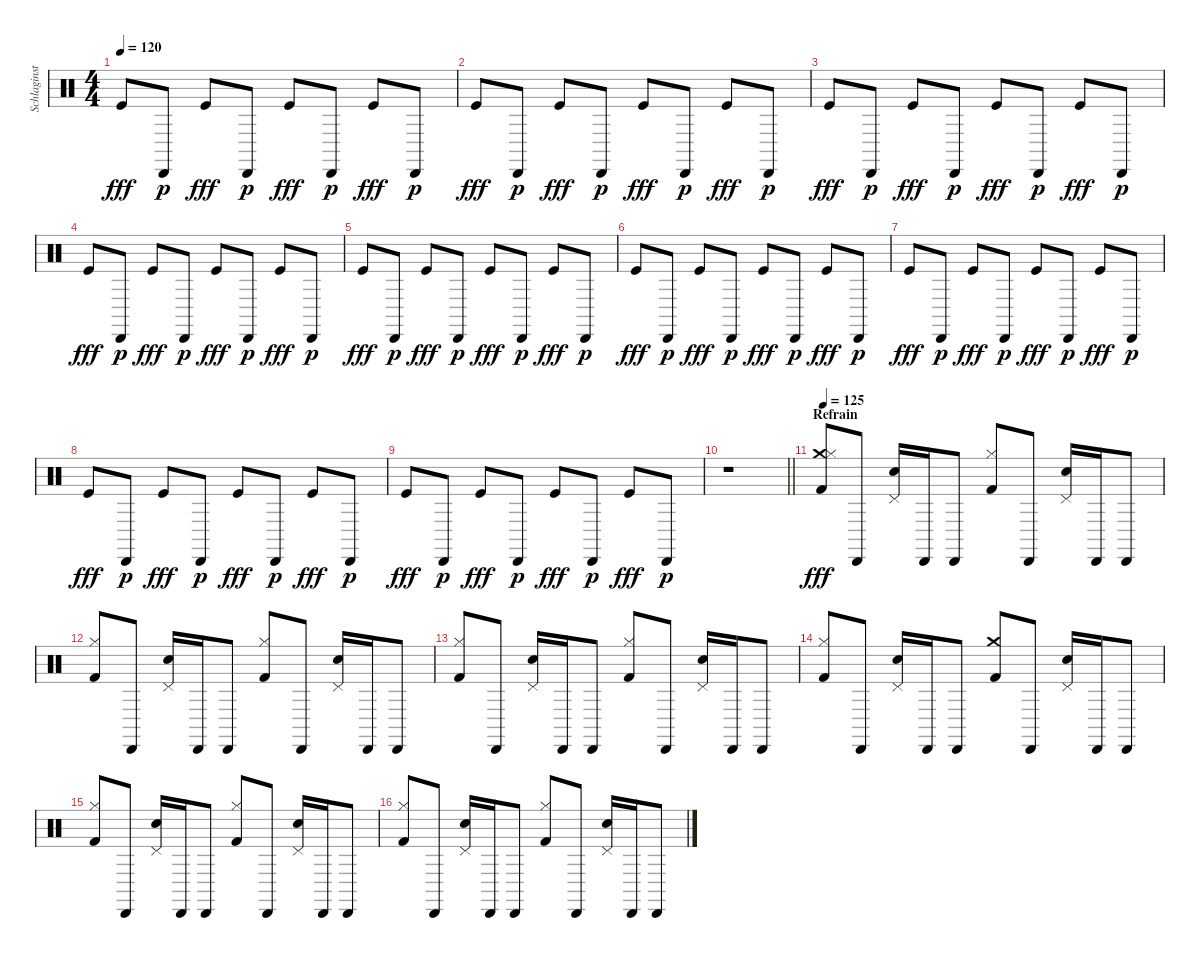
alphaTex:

\track ("Schlaginstrumente - Auswahl" "Schlaginst") {instrument percussion}
\staff {score}
\articulation defaults
\ts (4 4)
\tempo 120
\clef neutral
\ks c "Kick (hit)".8{dy fff} "Cabasa (hit)".8{dy p} "Kick (hit)".8{dy fff} "Cabasa (hit)".8{dy p} "Kick (hit)".8{dy fff} "Cabasa (hit)".8{dy p} "Kick (hit)".8{dy fff} "Cabasa (hit)".8{dy p}
|
"Kick (hit)".8{dy fff} "Cabasa (hit)".8{dy p} "Kick (hit)".8{dy fff} "Cabasa (hit)".8{dy p} "Kick (hit)".8{dy fff} "Cabasa (hit)".8{dy p} "Kick (hit)".8{dy fff} "Cabasa (hit)".8{dy p} |
"Kick (hit)".8{dy fff} "Cabasa (hit)".8{dy p} "Kick (hit)".8{dy fff} "Cabasa (hit)".8{dy p} "Kick (hit)".8{dy fff} "Cabasa (hit)".8{dy p} "Kick (hit)".8{dy fff} "Cabasa (hit)".8{dy p} |
"Kick (hit)".8{dy fff} "Cabasa (hit)".8{dy p} "Kick (hit)".8{dy fff} "Cabasa (hit)".8{dy p} "Kick (hit)".8{dy fff} "Cabasa (hit)".8{dy p} "Kick (hit)".8{dy fff} "Cabasa (hit)".8{dy p} |
"Kick (hit)".8{dy fff} "Cabasa (hit)".8{dy p} "Kick (hit)".8{dy fff} "Cabasa (hit)".8{dy p} "Kick (hit)".8{dy fff} "Cabasa (hit)".8{dy p} "Kick (hit)".8{dy fff} "Cabasa (hit)".8{dy p} |
"Kick (hit)".8{dy fff} "Cabasa (hit)".8{dy p} "Kick (hit)".8{dy fff} "Cabasa (hit)".8{dy p} "Kick (hit)".8{dy fff} "Cabasa (hit)".8{dy p} "Kick (hit)".8{dy fff} "Cabasa (hit)".8{dy p} |
"Kick (hit)".8{dy fff} "Cabasa (hit)".8{dy p} "Kick (hit)".8{dy fff} "Cabasa (hit)".8{dy p} "Kick (hit)".8{dy fff} "Cabasa (hit)".8{dy p} "Kick (hit)".8{dy fff} "Cabasa (hit)".8{dy p} |
"Kick (hit)".8{dy fff} "Cabasa (hit)".8{dy p} "Kick (hit)".8{dy fff} "Cabasa (hit)".8{dy p} "Kick (hit)".8{dy fff} "Cabasa (hit)".8{dy p} "Kick (hit)".8{dy fff} "Cabasa (hit)".8{dy p} |
"Kick (hit)".8{dy fff} "Cabasa (hit)".8{dy p} "Kick (hit)".8{dy fff} "Cabasa (hit)".8{dy p} "Kick (hit)".8{dy fff} "Cabasa (hit)".8{dy p} "Kick (hit)".8{dy fff} "Cabasa (hit)".8{dy p} |
\barLineRight lightlight
r.1 |
\section ("" "Refrain")
\tempo 125
("Crash medium (hit)" "Hi-Hat (closed)" "Kick (hit) 2").8{dy fff} "Cabasa (hit)".8 ("Pedal Hi-Hat (hit)" "Hand Clap (hit)").16 "Cabasa (hit)".16 "Cabasa (hit)".8 ("Hi-Hat (closed)" "Kick (hit) 2").8 "Cabasa (hit)".8 ("Pedal Hi-Hat (hit)" "Hand Clap (hit)").16 "Cabasa (hit)".16 "Cabasa (hit)".8 |
("Hi-Hat (closed)" "Kick (hit) 2").8 "Cabasa (hit)".8 ("Pedal Hi-Hat (hit)" "Hand Clap (hit)").16 "Cabasa (hit)".16 "Cabasa (hit)".8 ("Hi-Hat (closed)" "Kick (hit) 2").8 "Cabasa (hit)".8 ("Pedal Hi-Hat (hit)" "Hand Clap (hit)").16 "Cabasa (hit)".16 "Cabasa (hit)".8 |
("Hi-Hat (closed)" "Kick (hit) 2").8 "Cabasa (hit)".8 ("Pedal Hi-Hat (hit)" "Hand Clap (hit)").16 "Cabasa (hit)".16 "Cabasa (hit)".8 ("Hi-Hat (closed)" "Kick (hit) 2").8 "Cabasa (hit)".8 ("Pedal Hi-Hat (hit)" "Hand Clap (hit)").16 "Cabasa (hit)".16 "Cabasa (hit)".8 |
("Hi-Hat (closed)" "Kick (hit) 2").8 "Cabasa (hit)".8 ("Pedal Hi-Hat (hit)" "Hand Clap (hit)").16 "Cabasa (hit)".16 "Cabasa (hit)".8 ("Crash medium (hit)" "Kick (hit) 2").8 "Cabasa (hit)".8 ("Pedal Hi-Hat (hit)" "Hand Clap (hit)").16 "Cabasa (hit)".16 "Cabasa (hit)".8 |
("Hi-Hat (closed)" "Kick (hit) 2").8 "Cabasa (hit)".8 ("Pedal Hi-Hat (hit)" "Hand Clap (hit)").16 "Cabasa (hit)".16 "Cabasa (hit)".8 ("Hi-Hat (closed)" "Kick (hit) 2").8 "Cabasa (hit)".8 ("Pedal Hi-Hat (hit)" "Hand Clap (hit)").16 "Cabasa (hit)".16 "Cabasa (hit)".8 |
("Hi-Hat (closed)" "Kick (hit) 2").8 "Cabasa (hit)".8 ("Pedal Hi-Hat (hit)" "Hand Clap (hit)").16 "Cabasa (hit)".16 "Cabasa (hit)".8 ("Hi-Hat (closed)" "Kick (hit) 2").8 "Cabasa (hit)".8 ("Pedal Hi-Hat (hit)" "Hand Clap (hit)").16 "Cabasa (hit)".16 "Cabasa (hit)".8
